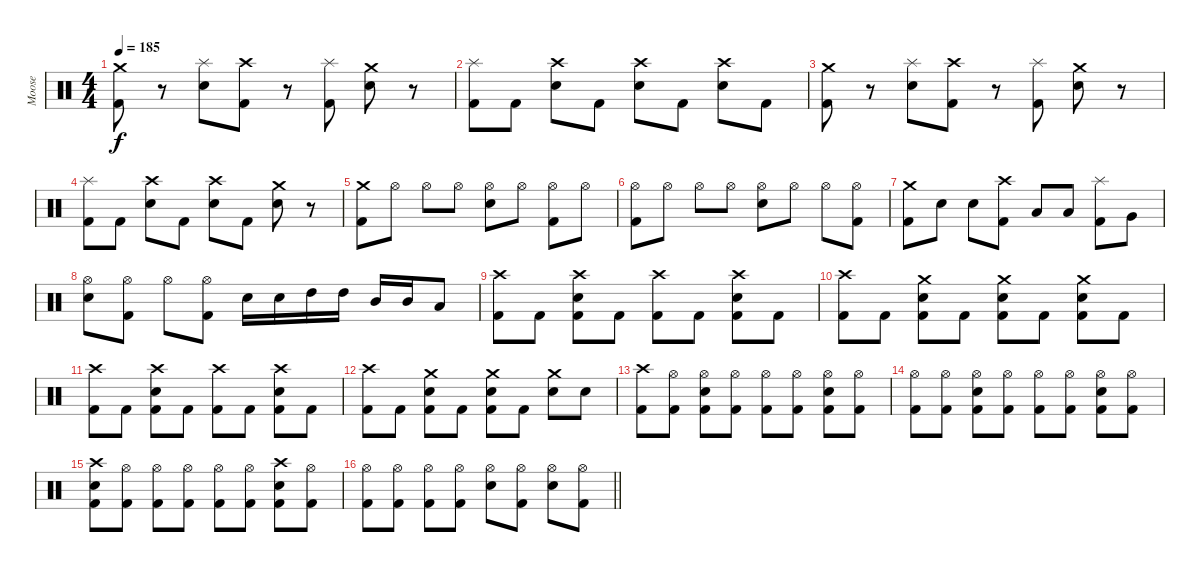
\track ("Moose" "Moose") {instrument percussion}
\staff {score}
\articulation defaults
\ts (4 4)
\tempo 185
\clef neutral
\ks c
("Crash medium (hit)" "Kick (hit) 2").8{dy f} r.8 ("Splash (hit)" "Electric Snare (hit)").8 ("Crash high (hit)" "Kick (hit) 2").8 r.8 ("Splash (hit)" "Kick (hit) 2").8 ("Crash medium (hit)" "Electric Snare (hit)").8 r.8 |
("Splash (hit)" "Kick (hit) 2").8 "Kick (hit) 2".8 ("Crash high (hit)" "Electric Snare (hit)").8 "Kick (hit) 2".8 ("Crash high (hit)" "Electric Snare (hit)").8 "Kick (hit) 2".8 ("Crash high (hit)" "Electric Snare (hit)").8 "Kick (hit) 2".8 |
("Crash medium (hit)" "Kick (hit) 2").8 r.8 ("Splash (hit)" "Electric Snare (hit)").8 ("Crash high (hit)" "Kick (hit) 2").8 r.8 ("Splash (hit)" "Kick (hit) 2").8 ("Crash medium (hit)" "Electric Snare (hit)").8 r.8 |
("Splash (hit)" "Kick (hit) 2").8 "Kick (hit) 2".8 ("Crash high (hit)" "Electric Snare (hit)").8 "Kick (hit) 2".8 ("Crash high (hit)" "Electric Snare (hit)").8 "Kick (hit) 2".8 ("Crash medium (hit)" "Electric Snare (hit)").8 r.8 |
("Crash medium (hit)" "Kick (hit) 2").8 "Hi-Hat (open)".8 "Hi-Hat (open)".8 "Hi-Hat (open)".8 ("Hi-Hat (open)" "Electric Snare (hit)").8 "Hi-Hat (open)".8 ("Hi-Hat (open)" "Kick (hit) 2").8 "Hi-Hat (open)".8 |
("Hi-Hat (open)" "Kick (hit) 2").8 "Hi-Hat (open)".8 "Hi-Hat (open)".8 "Hi-Hat (open)".8 ("Hi-Hat (open)" "Electric Snare (hit)").8 "Hi-Hat (open)".8 "Hi-Hat (open)".8 ("Hi-Hat (open)" "Kick (hit) 2").8 |
("Crash medium (hit)" "Kick (hit) 2").8 "Electric Snare (hit)".8 "Electric Snare (hit)".8 ("Crash high (hit)" "Kick (hit) 2").8 "Low Tom (hit)".8 "Low Tom (hit)".8 ("Splash (hit)" "Kick (hit) 2").8 "Very Low Tom (hit)".8 |
("Hi-Hat (open)" "Electric Snare (hit)").8 ("Hi-Hat (open)" "Kick (hit) 2").8 "Hi-Hat (open)".8 ("Hi-Hat (open)" "Kick (hit) 2").8 "Electric Snare (hit)".16 "Electric Snare (hit)".16 "High Tom (hit)".16 "High Tom (hit)".16 "Mid Tom (hit)".16 "Mid Tom (hit)".16 "Low Tom (hit)".8 |
("Crash high (hit)" "Kick (hit) 2").8 "Kick (hit) 2".8 ("Crash high (hit)" "Electric Snare (hit)" "Kick (hit) 2").8 "Kick (hit) 2".8 ("Crash high (hit)" "Kick (hit) 2").8 "Kick (hit) 2".8 ("Crash high (hit)" "Electric Snare (hit)" "Kick (hit) 2").8 "Kick (hit) 2".8 |
("Crash high (hit)" "Kick (hit) 2").8 "Kick (hit) 2".8 ("Crash medium (hit)" "Electric Snare (hit)" "Kick (hit) 2").8 "Kick (hit) 2".8 ("Crash medium (hit)" "Electric Snare (hit)" "Kick (hit) 2").8 "Kick (hit) 2".8 ("Crash medium (hit)" "Electric Snare (hit)" "Kick (hit) 2").8 "Kick (hit) 2".8 |
("Crash high (hit)" "Kick (hit) 2").8 "Kick (hit) 2".8 ("Crash high (hit)" "Electric Snare (hit)" "Kick (hit) 2").8 "Kick (hit) 2".8 ("Crash high (hit)" "Kick (hit) 2").8 "Kick (hit) 2".8 ("Crash high (hit)" "Electric Snare (hit)" "Kick (hit) 2").8 "Kick (hit) 2".8 |
("Crash high (hit)" "Kick (hit) 2").8 "Kick (hit) 2".8 ("Crash medium (hit)" "Electric Snare (hit)" "Kick (hit) 2").8 "Kick (hit) 2".8 ("Crash medium (hit)" "Electric Snare (hit)" "Kick (hit) 2").8 "Kick (hit) 2".8 ("Crash medium (hit)" "Electric Snare (hit)").8 "Electric Snare (hit)".8 |
("Crash high (hit)" "Kick (hit) 2").8 ("Hi-Hat (open)" "Kick (hit) 2").8 ("Hi-Hat (open)" "Electric Snare (hit)" "Kick (hit) 2").8 ("Hi-Hat (open)" "Kick (hit) 2").8 ("Hi-Hat (open)" "Kick (hit) 2").8 ("Hi-Hat (open)" "Kick (hit) 2").8 ("Hi-Hat (open)" "Electric Snare (hit)" "Kick (hit) 2").8 ("Hi-Hat (open)" "Kick (hit) 2").8 |
("Hi-Hat (open)" "Kick (hit) 2").8 ("Hi-Hat (open)" "Kick (hit) 2").8 ("Hi-Hat (open)" "Electric Snare (hit)" "Kick (hit) 2").8 ("Hi-Hat (open)" "Kick (hit) 2").8 ("Hi-Hat (open)" "Kick (hit) 2").8 ("Hi-Hat (open)" "Kick (hit) 2").8 ("Hi-Hat (open)" "Electric Snare (hit)" "Kick (hit) 2").8 ("Hi-Hat (open)" "Kick (hit) 2").8 |
("Crash high (hit)" "Electric Snare (hit)" "Kick (hit) 2").8 ("Hi-Hat (open)" "Kick (hit) 2").8 ("Hi-Hat (open)" "Kick (hit) 2").8 ("Hi-Hat (open)" "Kick (hit) 2").8 ("Hi-Hat (open)" "Kick (hit) 2").8 ("Hi-Hat (open)" "Kick (hit) 2").8 ("Crash high (hit)" "Electric Snare (hit)" "Kick (hit) 2").8 ("Hi-Hat (open)" "Kick (hit) 2").8 |
\barLineRight lightlight
("Hi-Hat (open)" "Kick (hit) 2").8 ("Hi-Hat (open)" "Kick (hit) 2").8 ("Hi-Hat (open)" "Kick (hit) 2").8 ("Hi-Hat (open)" "Kick (hit) 2").8 ("Hi-Hat (open)" "Electric Snare (hit)").8 ("Hi-Hat (open)" "Kick (hit) 2").8 ("Hi-Hat (open)" "Electric Snare (hit)").8 ("Hi-Hat (open)" "Kick (hit) 2").8
